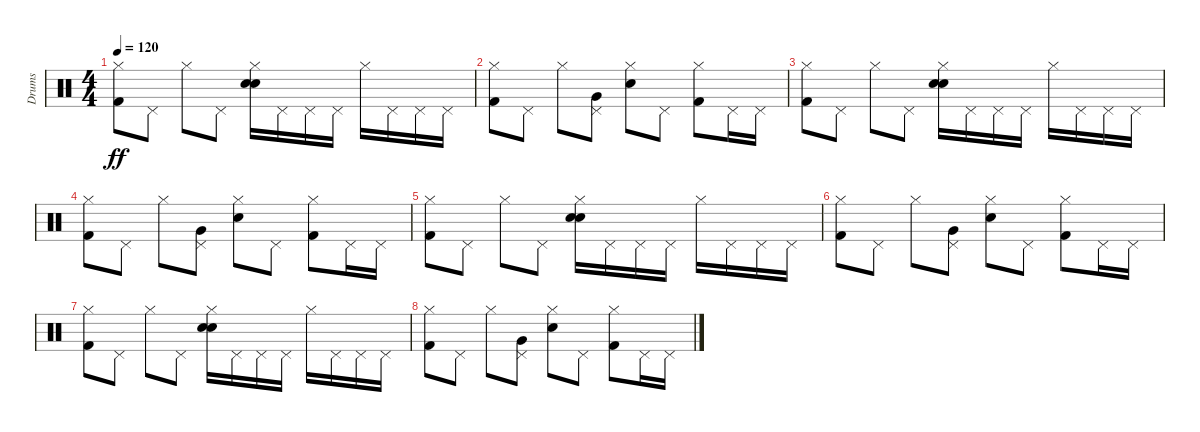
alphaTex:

\track ("Drums" "Drums") {instrument percussion}
\staff {score}
\articulation defaults
\ts (4 4)
\tempo 120
\clef neutral
\ks c
("Kick (hit) 2" "Hi-Hat (closed)").8{dy ff} "Pedal Hi-Hat (hit)".8 "Hi-Hat (closed)".8 "Pedal Hi-Hat (hit)".8 ("Electric Snare (hit)" "Electric Snare (hit)" "Hi-Hat (closed)").16 "Pedal Hi-Hat (hit)".16 "Pedal Hi-Hat (hit)".16 "Pedal Hi-Hat (hit)".16 "Hi-Hat (closed)".16 "Pedal Hi-Hat (hit)".16 "Pedal Hi-Hat (hit)".16 "Pedal Hi-Hat (hit)".16 |
("Kick (hit) 2" "Hi-Hat (closed)").8 "Pedal Hi-Hat (hit)".8 "Hi-Hat (closed)".8 ("Very Low Tom (hit)" "Pedal Hi-Hat (hit)").8 ("Electric Snare (hit)" "Hi-Hat (closed)").8 "Pedal Hi-Hat (hit)".8 ("Kick (hit) 2" "Hi-Hat (closed)").8 "Pedal Hi-Hat (hit)".16 "Pedal Hi-Hat (hit)".16 |
("Kick (hit) 2" "Hi-Hat (closed)").8 "Pedal Hi-Hat (hit)".8 "Hi-Hat (closed)".8 "Pedal Hi-Hat (hit)".8 ("Electric Snare (hit)" "Electric Snare (hit)" "Hi-Hat (closed)").16 "Pedal Hi-Hat (hit)".16 "Pedal Hi-Hat (hit)".16 "Pedal Hi-Hat (hit)".16 "Hi-Hat (closed)".16 "Pedal Hi-Hat (hit)".16 "Pedal Hi-Hat (hit)".16 "Pedal Hi-Hat (hit)".16 |
("Kick (hit) 2" "Hi-Hat (closed)").8 "Pedal Hi-Hat (hit)".8 "Hi-Hat (closed)".8 ("Very Low Tom (hit)" "Pedal Hi-Hat (hit)").8 ("Electric Snare (hit)" "Hi-Hat (closed)").8 "Pedal Hi-Hat (hit)".8 ("Kick (hit) 2" "Hi-Hat (closed)").8 "Pedal Hi-Hat (hit)".16 "Pedal Hi-Hat (hit)".16 |
("Kick (hit) 2" "Hi-Hat (closed)").8 "Pedal Hi-Hat (hit)".8 "Hi-Hat (closed)".8 "Pedal Hi-Hat (hit)".8 ("Electric Snare (hit)" "Electric Snare (hit)" "Hi-Hat (closed)").16 "Pedal Hi-Hat (hit)".16 "Pedal Hi-Hat (hit)".16 "Pedal Hi-Hat (hit)".16 "Hi-Hat (closed)".16 "Pedal Hi-Hat (hit)".16 "Pedal Hi-Hat (hit)".16 "Pedal Hi-Hat (hit)".16 |
("Kick (hit) 2" "Hi-Hat (closed)").8 "Pedal Hi-Hat (hit)".8 "Hi-Hat (closed)".8 ("Very Low Tom (hit)" "Pedal Hi-Hat (hit)").8 ("Electric Snare (hit)" "Hi-Hat (closed)").8 "Pedal Hi-Hat (hit)".8 ("Kick (hit) 2" "Hi-Hat (closed)").8 "Pedal Hi-Hat (hit)".16 "Pedal Hi-Hat (hit)".16 |
("Kick (hit) 2" "Hi-Hat (closed)").8 "Pedal Hi-Hat (hit)".8 "Hi-Hat (closed)".8 "Pedal Hi-Hat (hit)".8 ("Electric Snare (hit)" "Electric Snare (hit)" "Hi-Hat (closed)").16 "Pedal Hi-Hat (hit)".16 "Pedal Hi-Hat (hit)".16 "Pedal Hi-Hat (hit)".16 "Hi-Hat (closed)".16 "Pedal Hi-Hat (hit)".16 "Pedal Hi-Hat (hit)".16 "Pedal Hi-Hat (hit)".16 |
("Kick (hit) 2" "Hi-Hat (closed)").8 "Pedal Hi-Hat (hit)".8 "Hi-Hat (closed)".8 ("Very Low Tom (hit)" "Pedal Hi-Hat (hit)").8 ("Electric Snare (hit)" "Hi-Hat (closed)").8 "Pedal Hi-Hat (hit)".8 ("Kick (hit) 2" "Hi-Hat (closed)").8 "Pedal Hi-Hat (hit)".16 "Pedal Hi-Hat (hit)".16
